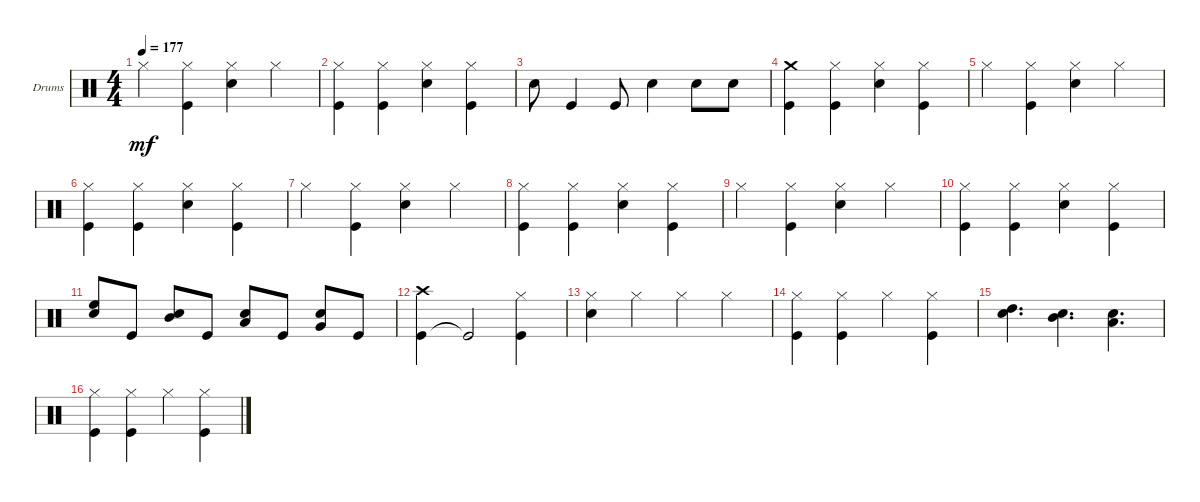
\defaultSystemsLayout 4
\bracketExtendMode groupsimilarinstruments
\firstSystemTrackNameOrientation horizontal
\otherSystemsTrackNameOrientation horizontal
\track ("Johnny Kelly" "Drums") {instrument percussion}
\staff {score}
\articulation defaults
\ts (4 4)
\tempo 177
\clef neutral
\ks c "Hi-Hat (closed)".4{dy mf}
("Kick (hit)" "Hi-Hat (closed)").4 ("Snare (hit) 2" "Hi-Hat (closed)").4 "Hi-Hat (closed)".4 |
("Kick (hit)" "Hi-Hat (closed)").4 ("Kick (hit)" "Hi-Hat (closed)").4 ("Snare (hit) 2" "Hi-Hat (closed)").4 ("Kick (hit)" "Hi-Hat (closed)").4 |
"Snare (hit) 2".8 "Kick (hit)".4 "Kick (hit)".8 "Snare (hit) 2".4 "Snare (hit) 2".8 "Snare (hit) 2".8 |
("Kick (hit)" "Crash medium (hit)").4 ("Kick (hit)" "Hi-Hat (closed)").4 ("Snare (hit) 2" "Hi-Hat (closed)").4 ("Kick (hit)" "Hi-Hat (closed)").4 |
"Hi-Hat (closed)".4 ("Kick (hit)" "Hi-Hat (closed)").4 ("Snare (hit) 2" "Hi-Hat (closed)").4 "Hi-Hat (closed)".4 |
("Kick (hit)" "Hi-Hat (closed)").4 ("Kick (hit)" "Hi-Hat (closed)").4 ("Snare (hit) 2" "Hi-Hat (closed)").4 ("Kick (hit)" "Hi-Hat (closed)").4 |
"Hi-Hat (closed)".4 ("Kick (hit)" "Hi-Hat (closed)").4 ("Snare (hit) 2" "Hi-Hat (closed)").4 "Hi-Hat (closed)".4 |
("Kick (hit)" "Hi-Hat (closed)").4 ("Kick (hit)" "Hi-Hat (closed)").4 ("Snare (hit) 2" "Hi-Hat (closed)").4 ("Kick (hit)" "Hi-Hat (closed)").4 |
"Hi-Hat (closed)".4 ("Kick (hit)" "Hi-Hat (closed)").4 ("Snare (hit) 2" "Hi-Hat (closed)").4 "Hi-Hat (closed)".4 |
("Kick (hit)" "Hi-Hat (closed)").4 ("Kick (hit)" "Hi-Hat (closed)").4 ("Snare (hit) 2" "Hi-Hat (closed)").4 ("Kick (hit)" "Hi-Hat (closed)").4 |
("Snare (hit) 2" "High Floor Tom (hit)").8 "Kick (hit)".8 ("Snare (hit) 2" "Mid Tom (hit)").8 "Kick (hit)".8 ("Snare (hit) 2" "Low Tom (hit)").8 "Kick (hit)".8 ("Snare (hit) 2" "Very Low Tom (hit)").8 "Kick (hit)".8 |
("Kick (hit)" "Crash high (hit)").4 "Kick (hit)"{t}.2 ("Kick (hit)" "Hi-Hat (closed)").4 |
("Snare (hit) 2" "Hi-Hat (closed)").4 "Hi-Hat (closed)".4 "Hi-Hat (closed)".4 "Hi-Hat (closed)".4 |
("Kick (hit)" "Hi-Hat (closed)").4 ("Kick (hit)" "Hi-Hat (closed)").4 "Hi-Hat (closed)".4 ("Kick (hit)" "Hi-Hat (closed)").4 |
("Snare (hit) 2" "High Tom (hit)").4{d} ("Snare (hit) 2" "Mid Tom (hit)").4{d} ("Snare (hit) 2" "Low Tom (hit)").4{d} |
("Kick (hit)" "Hi-Hat (closed)").4 ("Kick (hit)" "Hi-Hat (closed)").4 "Hi-Hat (closed)".4 ("Kick (hit)" "Hi-Hat (closed)").4
